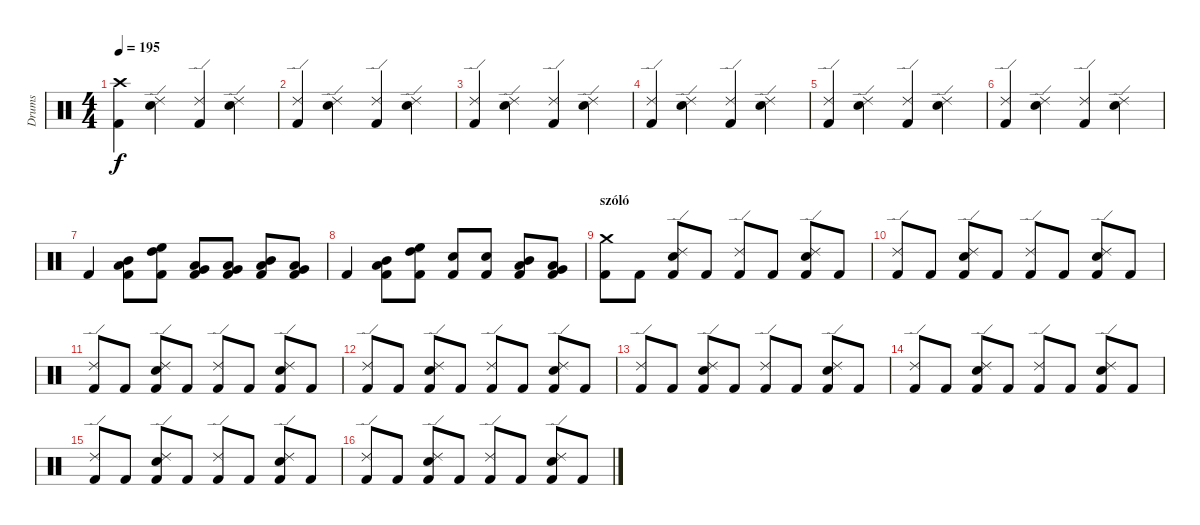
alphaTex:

\track ("Drums" "Drums") {instrument percussion}
\staff {score}
\articulation defaults
\ts (4 4)
\tempo 195
\clef neutral
\ks c
("Crash high (hit)" "Kick (hit) 2").4{dy f} ("Ride (edge) 2" "Snare (hit) 2").4 ("Ride (edge) 2" "Kick (hit) 2").4 ("Ride (edge) 2" "Snare (hit) 2").4 |
("Ride (edge) 2" "Kick (hit) 2").4 ("Ride (edge) 2" "Snare (hit) 2").4 ("Ride (edge) 2" "Kick (hit) 2").4 ("Ride (edge) 2" "Snare (hit) 2").4 |
("Ride (edge) 2" "Kick (hit) 2").4 ("Ride (edge) 2" "Snare (hit) 2").4 ("Ride (edge) 2" "Kick (hit) 2").4 ("Ride (edge) 2" "Snare (hit) 2").4 |
("Ride (edge) 2" "Kick (hit) 2").4 ("Ride (edge) 2" "Snare (hit) 2").4 ("Ride (edge) 2" "Kick (hit) 2").4 ("Ride (edge) 2" "Snare (hit) 2").4 |
("Ride (edge) 2" "Kick (hit) 2").4 ("Ride (edge) 2" "Snare (hit) 2").4 ("Ride (edge) 2" "Kick (hit) 2").4 ("Ride (edge) 2" "Snare (hit) 2").4 |
("Ride (edge) 2" "Kick (hit) 2").4 ("Ride (edge) 2" "Snare (hit) 2").4 ("Ride (edge) 2" "Kick (hit) 2").4 ("Ride (edge) 2" "Snare (hit) 2").4 |
"Kick (hit) 2".4 ("Mid Tom (hit)" "Low Tom (hit)" "Kick (hit) 2").8 ("High Tom (hit)" "High Floor Tom (hit)" "Kick (hit) 2").8 ("Low Tom (hit)" "Very Low Tom (hit)" "Kick (hit) 2").8 ("Low Tom (hit)" "Very Low Tom (hit)" "Kick (hit) 2").8 ("Mid Tom (hit)" "Low Tom (hit)" "Kick (hit) 2").8 ("Low Tom (hit)" "Very Low Tom (hit)" "Kick (hit) 2").8 |
"Kick (hit) 2".4 ("Mid Tom (hit)" "Low Tom (hit)" "Kick (hit) 2").8 ("High Tom (hit)" "High Floor Tom (hit)" "Kick (hit) 2").8 ("Snare (hit) 2" "Kick (hit) 2").8 ("Snare (hit) 2" "Kick (hit) 2").8 ("Mid Tom (hit)" "Low Tom (hit)" "Kick (hit) 2").8 ("Low Tom (hit)" "Very Low Tom (hit)" "Kick (hit) 2").8 |
\section ("" "szóló")
("Crash medium (hit)" "Kick (hit) 2").8 "Kick (hit) 2".8 ("Ride (edge) 2" "Snare (hit) 2" "Kick (hit) 2").8 "Kick (hit) 2".8 ("Ride (edge) 2" "Kick (hit) 2").8 "Kick (hit) 2".8 ("Ride (edge) 2" "Snare (hit) 2" "Kick (hit) 2").8 "Kick (hit) 2".8 |
("Ride (edge) 2" "Kick (hit) 2").8 "Kick (hit) 2".8 ("Ride (edge) 2" "Snare (hit) 2" "Kick (hit) 2").8 "Kick (hit) 2".8 ("Ride (edge) 2" "Kick (hit) 2").8 "Kick (hit) 2".8 ("Ride (edge) 2" "Snare (hit) 2" "Kick (hit) 2").8 "Kick (hit) 2".8 |
("Ride (edge) 2" "Kick (hit) 2").8 "Kick (hit) 2".8 ("Ride (edge) 2" "Snare (hit) 2" "Kick (hit) 2").8 "Kick (hit) 2".8 ("Ride (edge) 2" "Kick (hit) 2").8 "Kick (hit) 2".8 ("Ride (edge) 2" "Snare (hit) 2" "Kick (hit) 2").8 "Kick (hit) 2".8 |
("Ride (edge) 2" "Kick (hit) 2").8 "Kick (hit) 2".8 ("Ride (edge) 2" "Snare (hit) 2" "Kick (hit) 2").8 "Kick (hit) 2".8 ("Ride (edge) 2" "Kick (hit) 2").8 "Kick (hit) 2".8 ("Ride (edge) 2" "Snare (hit) 2" "Kick (hit) 2").8 "Kick (hit) 2".8 |
("Ride (edge) 2" "Kick (hit) 2").8 "Kick (hit) 2".8 ("Ride (edge) 2" "Snare (hit) 2" "Kick (hit) 2").8 "Kick (hit) 2".8 ("Ride (edge) 2" "Kick (hit) 2").8 "Kick (hit) 2".8 ("Ride (edge) 2" "Snare (hit) 2" "Kick (hit) 2").8 "Kick (hit) 2".8 |
("Ride (edge) 2" "Kick (hit) 2").8 "Kick (hit) 2".8 ("Ride (edge) 2" "Snare (hit) 2" "Kick (hit) 2").8 "Kick (hit) 2".8 ("Ride (edge) 2" "Kick (hit) 2").8 "Kick (hit) 2".8 ("Ride (edge) 2" "Snare (hit) 2" "Kick (hit) 2").8 "Kick (hit) 2".8 |
("Ride (edge) 2" "Kick (hit) 2").8 "Kick (hit) 2".8 ("Ride (edge) 2" "Snare (hit) 2" "Kick (hit) 2").8 "Kick (hit) 2".8 ("Ride (edge) 2" "Kick (hit) 2").8 "Kick (hit) 2".8 ("Ride (edge) 2" "Snare (hit) 2" "Kick (hit) 2").8 "Kick (hit) 2".8 |
("Ride (edge) 2" "Kick (hit) 2").8 "Kick (hit) 2".8 ("Ride (edge) 2" "Snare (hit) 2" "Kick (hit) 2").8 "Kick (hit) 2".8 ("Ride (edge) 2" "Kick (hit) 2").8 "Kick (hit) 2".8 ("Ride (edge) 2" "Snare (hit) 2" "Kick (hit) 2").8 "Kick (hit) 2".8
